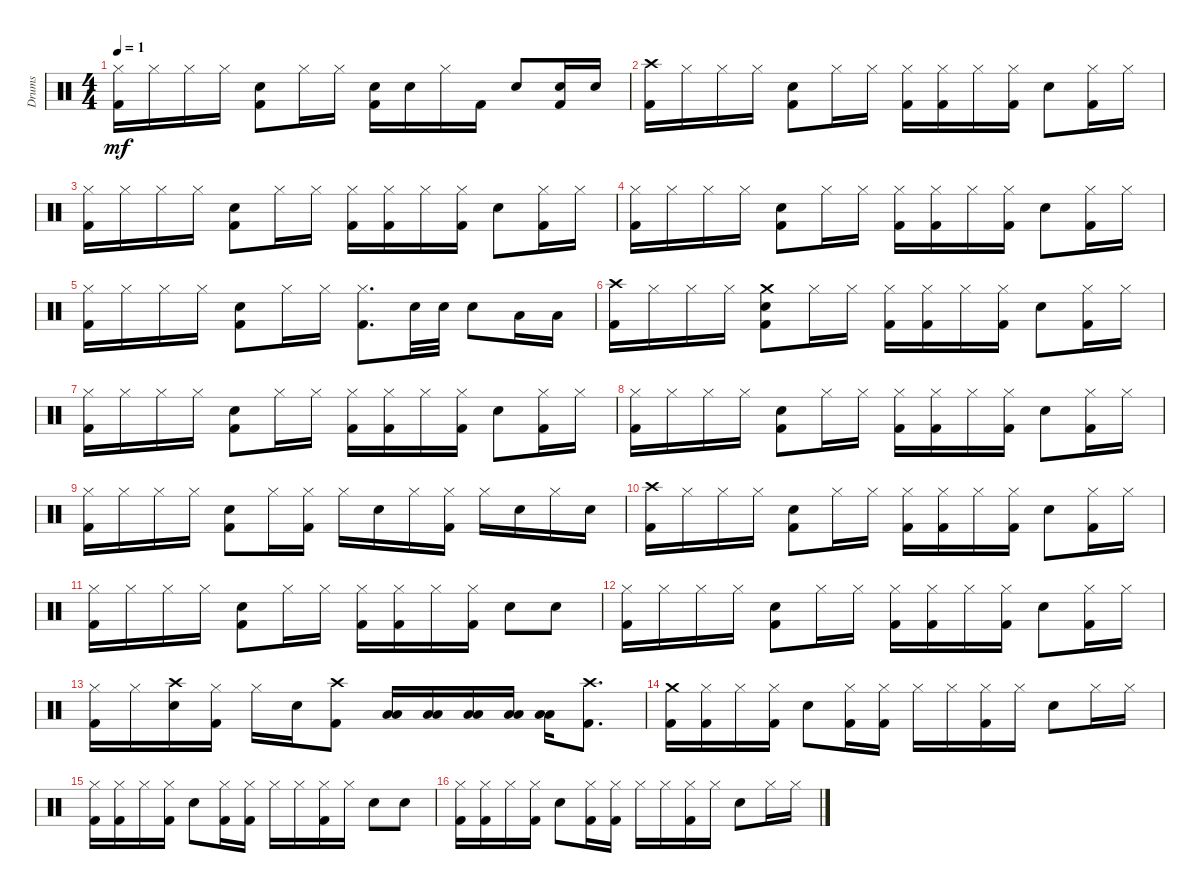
\track ("Drums" "Drums") {instrument percussion}
\staff {score}
\articulation defaults
\ts (4 4)
\tempo 1
\clef neutral
\ks c
("Kick (hit) 2" "Hi-Hat (closed)").16{dy mf} "Hi-Hat (closed)".16 "Hi-Hat (closed)".16 "Hi-Hat (closed)".16 ("Kick (hit) 2" "Snare (hit) 2").8 "Hi-Hat (closed)".16 "Hi-Hat (closed)".16 ("Snare (hit) 2" "Kick (hit) 2").16 "Snare (hit) 2".16 "Hi-Hat (closed)".16 "Kick (hit) 2".16 "Snare (hit) 2".8 ("Snare (hit) 2" "Kick (hit) 2").16 "Snare (hit) 2".16 |
("Crash high (hit)" "Kick (hit) 2").16 "Hi-Hat (closed)".16 "Hi-Hat (closed)".16 "Hi-Hat (closed)".16 ("Kick (hit) 2" "Snare (hit) 2").8 "Hi-Hat (closed)".16 "Hi-Hat (closed)".16 ("Hi-Hat (closed)" "Kick (hit) 2").16 ("Hi-Hat (closed)" "Kick (hit) 2").16 "Hi-Hat (closed)".16 ("Hi-Hat (closed)" "Kick (hit) 2").16 "Snare (hit) 2".8 ("Hi-Hat (closed)" "Kick (hit) 2").16 "Hi-Hat (closed)".16 |
("Kick (hit) 2" "Hi-Hat (closed)").16 "Hi-Hat (closed)".16 "Hi-Hat (closed)".16 "Hi-Hat (closed)".16 ("Kick (hit) 2" "Snare (hit) 2").8 "Hi-Hat (closed)".16 "Hi-Hat (closed)".16 ("Hi-Hat (closed)" "Kick (hit) 2").16 ("Hi-Hat (closed)" "Kick (hit) 2").16 "Hi-Hat (closed)".16 ("Hi-Hat (closed)" "Kick (hit) 2").16 "Snare (hit) 2".8 ("Hi-Hat (closed)" "Kick (hit) 2").16 "Hi-Hat (closed)".16 |
("Kick (hit) 2" "Hi-Hat (closed)").16 "Hi-Hat (closed)".16 "Hi-Hat (closed)".16 "Hi-Hat (closed)".16 ("Kick (hit) 2" "Snare (hit) 2").8 "Hi-Hat (closed)".16 "Hi-Hat (closed)".16 ("Hi-Hat (closed)" "Kick (hit) 2").16 ("Hi-Hat (closed)" "Kick (hit) 2").16 "Hi-Hat (closed)".16 ("Hi-Hat (closed)" "Kick (hit) 2").16 "Snare (hit) 2".8 ("Hi-Hat (closed)" "Kick (hit) 2").16 "Hi-Hat (closed)".16 |
("Kick (hit) 2" "Hi-Hat (closed)").16 "Hi-Hat (closed)".16 "Hi-Hat (closed)".16 "Hi-Hat (closed)".16 ("Kick (hit) 2" "Snare (hit) 2").8 "Hi-Hat (closed)".16 "Hi-Hat (closed)".16 ("Hi-Hat (closed)" "Kick (hit) 2").8{d} "Snare (hit) 2".32 "Snare (hit) 2".32 "Snare (hit) 2".8 "Low Tom (hit)".16 "Low Tom (hit)".16 |
("Crash high (hit)" "Kick (hit) 2").16 "Hi-Hat (closed)".16 "Hi-Hat (closed)".16 "Hi-Hat (closed)".16 ("Kick (hit) 2" "Snare (hit) 2" "Crash medium (hit)").8 "Hi-Hat (closed)".16 "Hi-Hat (closed)".16 ("Hi-Hat (closed)" "Kick (hit) 2").16 ("Hi-Hat (closed)" "Kick (hit) 2").16 "Hi-Hat (closed)".16 ("Hi-Hat (closed)" "Kick (hit) 2").16 "Snare (hit) 2".8 ("Hi-Hat (closed)" "Kick (hit) 2").16 "Hi-Hat (closed)".16 |
("Kick (hit) 2" "Hi-Hat (closed)").16 "Hi-Hat (closed)".16 "Hi-Hat (closed)".16 "Hi-Hat (closed)".16 ("Kick (hit) 2" "Snare (hit) 2").8 "Hi-Hat (closed)".16 "Hi-Hat (closed)".16 ("Hi-Hat (closed)" "Kick (hit) 2").16 ("Hi-Hat (closed)" "Kick (hit) 2").16 "Hi-Hat (closed)".16 ("Hi-Hat (closed)" "Kick (hit) 2").16 "Snare (hit) 2".8 ("Hi-Hat (closed)" "Kick (hit) 2").16 "Hi-Hat (closed)".16 |
("Kick (hit) 2" "Hi-Hat (closed)").16 "Hi-Hat (closed)".16 "Hi-Hat (closed)".16 "Hi-Hat (closed)".16 ("Kick (hit) 2" "Snare (hit) 2").8 "Hi-Hat (closed)".16 "Hi-Hat (closed)".16 ("Hi-Hat (closed)" "Kick (hit) 2").16 ("Hi-Hat (closed)" "Kick (hit) 2").16 "Hi-Hat (closed)".16 ("Hi-Hat (closed)" "Kick (hit) 2").16 "Snare (hit) 2".8 ("Hi-Hat (closed)" "Kick (hit) 2").16 "Hi-Hat (closed)".16 |
("Kick (hit) 2" "Hi-Hat (closed)").16 "Hi-Hat (closed)".16 "Hi-Hat (closed)".16 "Hi-Hat (closed)".16 ("Kick (hit) 2" "Snare (hit) 2").8 "Hi-Hat (closed)".16 ("Hi-Hat (closed)" "Kick (hit) 2").16 "Hi-Hat (closed)".16 "Snare (hit) 2".16 "Hi-Hat (closed)".16 ("Hi-Hat (closed)" "Kick (hit) 2").16 "Hi-Hat (closed)".16 "Snare (hit) 2".16 "Hi-Hat (closed)".16 "Snare (hit) 2".16 |
("Crash high (hit)" "Kick (hit) 2").16 "Hi-Hat (closed)".16 "Hi-Hat (closed)".16 "Hi-Hat (closed)".16 ("Kick (hit) 2" "Snare (hit) 2").8 "Hi-Hat (closed)".16 "Hi-Hat (closed)".16 ("Hi-Hat (closed)" "Kick (hit) 2").16 ("Hi-Hat (closed)" "Kick (hit) 2").16 "Hi-Hat (closed)".16 ("Hi-Hat (closed)" "Kick (hit) 2").16 "Snare (hit) 2".8 ("Hi-Hat (closed)" "Kick (hit) 2").16 "Hi-Hat (closed)".16 |
("Kick (hit) 2" "Hi-Hat (closed)").16 "Hi-Hat (closed)".16 "Hi-Hat (closed)".16 "Hi-Hat (closed)".16 ("Kick (hit) 2" "Snare (hit) 2").8 "Hi-Hat (closed)".16 "Hi-Hat (closed)".16 ("Hi-Hat (closed)" "Kick (hit) 2").16 ("Hi-Hat (closed)" "Kick (hit) 2").16 "Hi-Hat (closed)".16 ("Hi-Hat (closed)" "Kick (hit) 2").16 "Snare (hit) 2".8 "Snare (hit) 2".8 |
("Kick (hit) 2" "Hi-Hat (closed)").16 "Hi-Hat (closed)".16 "Hi-Hat (closed)".16 "Hi-Hat (closed)".16 ("Kick (hit) 2" "Snare (hit) 2").8 "Hi-Hat (closed)".16 "Hi-Hat (closed)".16 ("Hi-Hat (closed)" "Kick (hit) 2").16 ("Hi-Hat (closed)" "Kick (hit) 2").16 "Hi-Hat (closed)".16 ("Hi-Hat (closed)" "Kick (hit) 2").16 "Snare (hit) 2".8 ("Hi-Hat (closed)" "Kick (hit) 2").16 "Hi-Hat (closed)".16 |
("Kick (hit) 2" "Hi-Hat (closed)").16 "Hi-Hat (closed)".16 ("Crash high (hit)" "Snare (hit) 2").16 ("Kick (hit) 2" "Hi-Hat (closed)").16 "Hi-Hat (closed)".16 "Snare (hit) 2".16 ("Kick (hit) 2" "Crash high (hit)").8 ("Low Tom (hit)" "Low Floor Tom (hit)").16 ("Low Tom (hit)" "Low Floor Tom (hit)").16 ("Low Tom (hit)" "Low Floor Tom (hit)").16 ("Low Tom (hit)" "Low Floor Tom (hit)").16 ("Low Tom (hit)" "Low Floor Tom (hit)").16 ("Kick (hit) 2" "Crash high (hit)").8{d} |
("Kick (hit) 2" "Crash medium (hit)").16 ("Hi-Hat (closed)" "Kick (hit) 2").16 "Hi-Hat (closed)".16 ("Hi-Hat (closed)" "Kick (hit) 2").16 "Snare (hit) 2".8 ("Hi-Hat (closed)" "Kick (hit) 2").16 ("Hi-Hat (closed)" "Kick (hit) 2").16 "Hi-Hat (closed)".16 "Hi-Hat (closed)".16 ("Hi-Hat (closed)" "Kick (hit) 2").16 "Hi-Hat (closed)".16 "Snare (hit) 2".8 "Hi-Hat (closed)".16 "Hi-Hat (closed)".16 |
("Hi-Hat (closed)" "Kick (hit) 2").16 ("Hi-Hat (closed)" "Kick (hit) 2").16 "Hi-Hat (closed)".16 ("Hi-Hat (closed)" "Kick (hit) 2").16 "Snare (hit) 2".8 ("Hi-Hat (closed)" "Kick (hit) 2").16 ("Hi-Hat (closed)" "Kick (hit) 2").16 "Hi-Hat (closed)".16 "Hi-Hat (closed)".16 ("Hi-Hat (closed)" "Kick (hit) 2").16 "Hi-Hat (closed)".16 "Snare (hit) 2".8 "Snare (hit) 2".8 |
("Hi-Hat (closed)" "Kick (hit) 2").16 ("Hi-Hat (closed)" "Kick (hit) 2").16 "Hi-Hat (closed)".16 ("Hi-Hat (closed)" "Kick (hit) 2").16 "Snare (hit) 2".8 ("Hi-Hat (closed)" "Kick (hit) 2").16 ("Hi-Hat (closed)" "Kick (hit) 2").16 "Hi-Hat (closed)".16 "Hi-Hat (closed)".16 ("Hi-Hat (closed)" "Kick (hit) 2").16 "Hi-Hat (closed)".16 "Snare (hit) 2".8 "Hi-Hat (closed)".16 "Hi-Hat (closed)".16
